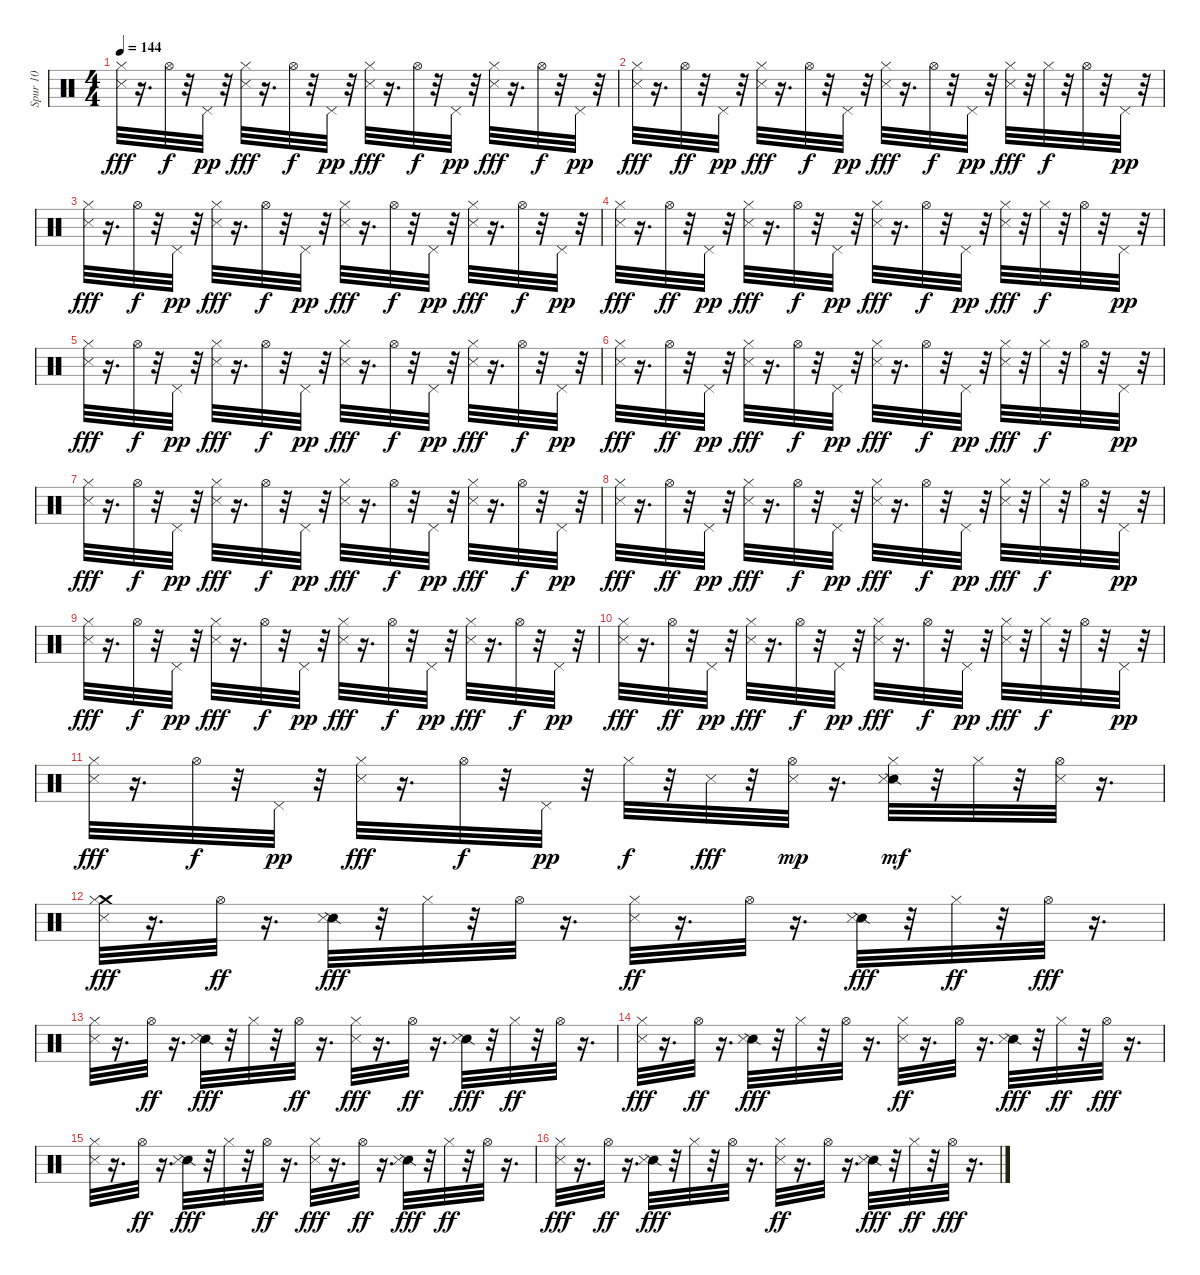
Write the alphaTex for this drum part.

\track ("Spur 10" "Spur 10") {instrument percussion}
\staff {score}
\articulation defaults
\ts (4 4)
\tempo 144
\clef neutral
\ks c
("Metronome (hit)" "Hi-Hat (closed)").32{dy fff} r.16{d} "Hi-Hat (open)".32{dy f} r.32 "Pedal Hi-Hat (hit)".32{dy pp} r.32 ("Metronome (hit)" "Hi-Hat (closed)").32{dy fff} r.16{d} "Hi-Hat (open)".32{dy f} r.32 "Pedal Hi-Hat (hit)".32{dy pp} r.32 ("Metronome (hit)" "Hi-Hat (closed)").32{dy fff} r.16{d} "Hi-Hat (open)".32{dy f} r.32 "Pedal Hi-Hat (hit)".32{dy pp} r.32 ("Metronome (hit)" "Hi-Hat (closed)").32{dy fff} r.16{d} "Hi-Hat (open)".32{dy f} r.32 "Pedal Hi-Hat (hit)".32{dy pp} r.32 |
("Metronome (hit)" "Hi-Hat (closed)").32{dy fff} r.16{d} "Hi-Hat (open)".32{dy ff} r.32 "Pedal Hi-Hat (hit)".32{dy pp} r.32 ("Metronome (hit)" "Hi-Hat (closed)").32{dy fff} r.16{d} "Hi-Hat (open)".32{dy f} r.32 "Pedal Hi-Hat (hit)".32{dy pp} r.32 ("Metronome (hit)" "Hi-Hat (closed)").32{dy fff} r.16{d} "Hi-Hat (open)".32{dy f} r.32 "Pedal Hi-Hat (hit)".32{dy pp} r.32 ("Metronome (hit)" "Hi-Hat (closed)").32{dy fff} r.32 "Hi-Hat (closed)".32{dy f} r.32 "Hi-Hat (open)".32 r.32 "Pedal Hi-Hat (hit)".32{dy pp} r.32 |
("Metronome (hit)" "Hi-Hat (closed)").32{dy fff} r.16{d} "Hi-Hat (open)".32{dy f} r.32 "Pedal Hi-Hat (hit)".32{dy pp} r.32 ("Metronome (hit)" "Hi-Hat (closed)").32{dy fff} r.16{d} "Hi-Hat (open)".32{dy f} r.32 "Pedal Hi-Hat (hit)".32{dy pp} r.32 ("Metronome (hit)" "Hi-Hat (closed)").32{dy fff} r.16{d} "Hi-Hat (open)".32{dy f} r.32 "Pedal Hi-Hat (hit)".32{dy pp} r.32 ("Metronome (hit)" "Hi-Hat (closed)").32{dy fff} r.16{d} "Hi-Hat (open)".32{dy f} r.32 "Pedal Hi-Hat (hit)".32{dy pp} r.32 |
("Metronome (hit)" "Hi-Hat (closed)").32{dy fff} r.16{d} "Hi-Hat (open)".32{dy ff} r.32 "Pedal Hi-Hat (hit)".32{dy pp} r.32 ("Metronome (hit)" "Hi-Hat (closed)").32{dy fff} r.16{d} "Hi-Hat (open)".32{dy f} r.32 "Pedal Hi-Hat (hit)".32{dy pp} r.32 ("Metronome (hit)" "Hi-Hat (closed)").32{dy fff} r.16{d} "Hi-Hat (open)".32{dy f} r.32 "Pedal Hi-Hat (hit)".32{dy pp} r.32 ("Metronome (hit)" "Hi-Hat (closed)").32{dy fff} r.32 "Hi-Hat (closed)".32{dy f} r.32 "Hi-Hat (open)".32 r.32 "Pedal Hi-Hat (hit)".32{dy pp} r.32 |
("Metronome (hit)" "Hi-Hat (closed)").32{dy fff} r.16{d} "Hi-Hat (open)".32{dy f} r.32 "Pedal Hi-Hat (hit)".32{dy pp} r.32 ("Metronome (hit)" "Hi-Hat (closed)").32{dy fff} r.16{d} "Hi-Hat (open)".32{dy f} r.32 "Pedal Hi-Hat (hit)".32{dy pp} r.32 ("Metronome (hit)" "Hi-Hat (closed)").32{dy fff} r.16{d} "Hi-Hat (open)".32{dy f} r.32 "Pedal Hi-Hat (hit)".32{dy pp} r.32 ("Metronome (hit)" "Hi-Hat (closed)").32{dy fff} r.16{d} "Hi-Hat (open)".32{dy f} r.32 "Pedal Hi-Hat (hit)".32{dy pp} r.32 |
("Metronome (hit)" "Hi-Hat (closed)").32{dy fff} r.16{d} "Hi-Hat (open)".32{dy ff} r.32 "Pedal Hi-Hat (hit)".32{dy pp} r.32 ("Metronome (hit)" "Hi-Hat (closed)").32{dy fff} r.16{d} "Hi-Hat (open)".32{dy f} r.32 "Pedal Hi-Hat (hit)".32{dy pp} r.32 ("Metronome (hit)" "Hi-Hat (closed)").32{dy fff} r.16{d} "Hi-Hat (open)".32{dy f} r.32 "Pedal Hi-Hat (hit)".32{dy pp} r.32 ("Metronome (hit)" "Hi-Hat (closed)").32{dy fff} r.32 "Hi-Hat (closed)".32{dy f} r.32 "Hi-Hat (open)".32 r.32 "Pedal Hi-Hat (hit)".32{dy pp} r.32 |
("Metronome (hit)" "Hi-Hat (closed)").32{dy fff} r.16{d} "Hi-Hat (open)".32{dy f} r.32 "Pedal Hi-Hat (hit)".32{dy pp} r.32 ("Metronome (hit)" "Hi-Hat (closed)").32{dy fff} r.16{d} "Hi-Hat (open)".32{dy f} r.32 "Pedal Hi-Hat (hit)".32{dy pp} r.32 ("Metronome (hit)" "Hi-Hat (closed)").32{dy fff} r.16{d} "Hi-Hat (open)".32{dy f} r.32 "Pedal Hi-Hat (hit)".32{dy pp} r.32 ("Metronome (hit)" "Hi-Hat (closed)").32{dy fff} r.16{d} "Hi-Hat (open)".32{dy f} r.32 "Pedal Hi-Hat (hit)".32{dy pp} r.32 |
("Metronome (hit)" "Hi-Hat (closed)").32{dy fff} r.16{d} "Hi-Hat (open)".32{dy ff} r.32 "Pedal Hi-Hat (hit)".32{dy pp} r.32 ("Metronome (hit)" "Hi-Hat (closed)").32{dy fff} r.16{d} "Hi-Hat (open)".32{dy f} r.32 "Pedal Hi-Hat (hit)".32{dy pp} r.32 ("Metronome (hit)" "Hi-Hat (closed)").32{dy fff} r.16{d} "Hi-Hat (open)".32{dy f} r.32 "Pedal Hi-Hat (hit)".32{dy pp} r.32 ("Metronome (hit)" "Hi-Hat (closed)").32{dy fff} r.32 "Hi-Hat (closed)".32{dy f} r.32 "Hi-Hat (open)".32 r.32 "Pedal Hi-Hat (hit)".32{dy pp} r.32 |
("Metronome (hit)" "Hi-Hat (closed)").32{dy fff} r.16{d} "Hi-Hat (open)".32{dy f} r.32 "Pedal Hi-Hat (hit)".32{dy pp} r.32 ("Metronome (hit)" "Hi-Hat (closed)").32{dy fff} r.16{d} "Hi-Hat (open)".32{dy f} r.32 "Pedal Hi-Hat (hit)".32{dy pp} r.32 ("Metronome (hit)" "Hi-Hat (closed)").32{dy fff} r.16{d} "Hi-Hat (open)".32{dy f} r.32 "Pedal Hi-Hat (hit)".32{dy pp} r.32 ("Metronome (hit)" "Hi-Hat (closed)").32{dy fff} r.16{d} "Hi-Hat (open)".32{dy f} r.32 "Pedal Hi-Hat (hit)".32{dy pp} r.32 |
("Metronome (hit)" "Hi-Hat (closed)").32{dy fff} r.16{d} "Hi-Hat (open)".32{dy ff} r.32 "Pedal Hi-Hat (hit)".32{dy pp} r.32 ("Metronome (hit)" "Hi-Hat (closed)").32{dy fff} r.16{d} "Hi-Hat (open)".32{dy f} r.32 "Pedal Hi-Hat (hit)".32{dy pp} r.32 ("Metronome (hit)" "Hi-Hat (closed)").32{dy fff} r.16{d} "Hi-Hat (open)".32{dy f} r.32 "Pedal Hi-Hat (hit)".32{dy pp} r.32 ("Metronome (hit)" "Hi-Hat (closed)").32{dy fff} r.32 "Hi-Hat (closed)".32{dy f} r.32 "Hi-Hat (open)".32 r.32 "Pedal Hi-Hat (hit)".32{dy pp} r.32 |
("Metronome (hit)" "Hi-Hat (closed)").32{dy fff} r.16{d} "Hi-Hat (open)".32{dy f} r.32 "Pedal Hi-Hat (hit)".32{dy pp} r.32 ("Metronome (hit)" "Hi-Hat (closed)").32{dy fff} r.16{d} "Hi-Hat (open)".32{dy f} r.32 "Pedal Hi-Hat (hit)".32{dy pp} r.32 "Hi-Hat (closed)".32{dy f} r.32 "Metronome (hit)".32{dy fff} r.32 ("Metronome (hit)" "Hi-Hat (open)").32{dy mp} r.16{d} ("Snare (side stick) 2" "Metronome (hit)" "Hi-Hat (closed)").32{dy mf} r.32 "Hi-Hat (closed)".32 r.32 ("Metronome (hit)" "Hi-Hat (open)").32 r.16{d} |
("Crash medium (hit)" "Metronome (hit)" "Hi-Hat (closed)").32{dy fff} r.16{d} "Hi-Hat (open)".32{dy ff} r.16{d} ("Snare (side stick) 2" "Metronome (hit)").32{dy fff} r.32 "Hi-Hat (closed)".32 r.32 "Hi-Hat (open)".32 r.16{d} ("Metronome (hit)" "Hi-Hat (closed)").32{dy ff} r.16{d} "Hi-Hat (open)".32 r.16{d} ("Snare (side stick) 2" "Metronome (hit)").32{dy fff} r.32 "Hi-Hat (closed)".32{dy ff} r.32 "Hi-Hat (open)".32{dy fff} r.16{d} |
("Metronome (hit)" "Hi-Hat (closed)").32 r.16{d} "Hi-Hat (open)".32{dy ff} r.16{d} ("Snare (side stick) 2" "Metronome (hit)").32{dy fff} r.32 "Hi-Hat (closed)".32 r.32 "Hi-Hat (open)".32{dy ff} r.16{d} ("Metronome (hit)" "Hi-Hat (closed)").32{dy fff} r.16{d} "Hi-Hat (open)".32{dy ff} r.16{d} ("Snare (side stick) 2" "Metronome (hit)").32{dy fff} r.32 "Hi-Hat (closed)".32{dy ff} r.32 "Hi-Hat (open)".32 r.16{d} |
("Metronome (hit)" "Hi-Hat (closed)").32{dy fff} r.16{d} "Hi-Hat (open)".32{dy ff} r.16{d} ("Snare (side stick) 2" "Metronome (hit)").32{dy fff} r.32 "Hi-Hat (closed)".32 r.32 "Hi-Hat (open)".32 r.16{d} ("Metronome (hit)" "Hi-Hat (closed)").32{dy ff} r.16{d} "Hi-Hat (open)".32 r.16{d} ("Snare (side stick) 2" "Metronome (hit)").32{dy fff} r.32 "Hi-Hat (closed)".32{dy ff} r.32 "Hi-Hat (open)".32{dy fff} r.16{d} |
("Metronome (hit)" "Hi-Hat (closed)").32 r.16{d} "Hi-Hat (open)".32{dy ff} r.16{d} ("Snare (side stick) 2" "Metronome (hit)").32{dy fff} r.32 "Hi-Hat (closed)".32 r.32 "Hi-Hat (open)".32{dy ff} r.16{d} ("Metronome (hit)" "Hi-Hat (closed)").32{dy fff} r.16{d} "Hi-Hat (open)".32{dy ff} r.16{d} ("Snare (side stick) 2" "Metronome (hit)").32{dy fff} r.32 "Hi-Hat (closed)".32{dy ff} r.32 "Hi-Hat (open)".32 r.16{d} |
("Metronome (hit)" "Hi-Hat (closed)").32{dy fff} r.16{d} "Hi-Hat (open)".32{dy ff} r.16{d} ("Snare (side stick) 2" "Metronome (hit)").32{dy fff} r.32 "Hi-Hat (closed)".32 r.32 "Hi-Hat (open)".32 r.16{d} ("Metronome (hit)" "Hi-Hat (closed)").32{dy ff} r.16{d} "Hi-Hat (open)".32 r.16{d} ("Snare (side stick) 2" "Metronome (hit)").32{dy fff} r.32 "Hi-Hat (closed)".32{dy ff} r.32 "Hi-Hat (open)".32{dy fff} r.16{d}
